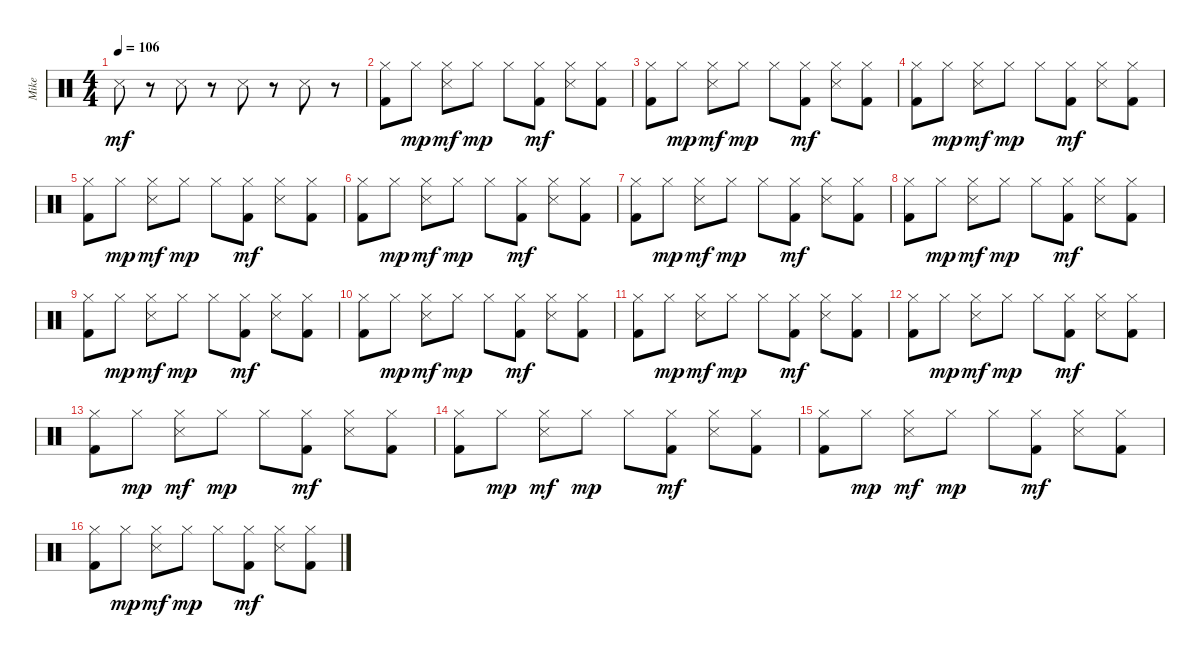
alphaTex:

\track ("Mike" "Mike") {instrument percussion}
\staff {score}
\articulation defaults
\ts (4 4)
\tempo 106
\clef neutral
\ks c "Snare (side stick) 3".8{dy mf volume 15}
r.8 "Snare (side stick) 3".8 r.8 "Snare (side stick) 3".8 r.8 "Snare (side stick) 3".8 r.8 |
("Hi-Hat (closed)" "Kick (hit) 2").8 "Hi-Hat (closed)".8{dy mp} ("Hi-Hat (closed)" "Snare (side stick) 3").8{dy mf} "Hi-Hat (closed)".8{dy mp} "Hi-Hat (closed)".8 ("Hi-Hat (closed)" "Kick (hit) 2").8{dy mf} ("Hi-Hat (closed)" "Snare (side stick) 3").8 ("Hi-Hat (closed)" "Kick (hit) 2").8 |
("Hi-Hat (closed)" "Kick (hit) 2").8 "Hi-Hat (closed)".8{dy mp} ("Hi-Hat (closed)" "Snare (side stick) 3").8{dy mf} "Hi-Hat (closed)".8{dy mp} "Hi-Hat (closed)".8 ("Hi-Hat (closed)" "Kick (hit) 2").8{dy mf} ("Hi-Hat (closed)" "Snare (side stick) 3").8 ("Hi-Hat (closed)" "Kick (hit) 2").8 |
("Hi-Hat (closed)" "Kick (hit) 2").8 "Hi-Hat (closed)".8{dy mp} ("Hi-Hat (closed)" "Snare (side stick) 3").8{dy mf} "Hi-Hat (closed)".8{dy mp} "Hi-Hat (closed)".8 ("Hi-Hat (closed)" "Kick (hit) 2").8{dy mf} ("Hi-Hat (closed)" "Snare (side stick) 3").8 ("Hi-Hat (closed)" "Kick (hit) 2").8 |
("Hi-Hat (closed)" "Kick (hit) 2").8 "Hi-Hat (closed)".8{dy mp} ("Hi-Hat (closed)" "Snare (side stick) 3").8{dy mf} "Hi-Hat (closed)".8{dy mp} "Hi-Hat (closed)".8 ("Hi-Hat (closed)" "Kick (hit) 2").8{dy mf} ("Hi-Hat (closed)" "Snare (side stick) 3").8 ("Hi-Hat (closed)" "Kick (hit) 2").8 |
("Hi-Hat (closed)" "Kick (hit) 2").8 "Hi-Hat (closed)".8{dy mp} ("Hi-Hat (closed)" "Snare (side stick) 3").8{dy mf} "Hi-Hat (closed)".8{dy mp} "Hi-Hat (closed)".8 ("Hi-Hat (closed)" "Kick (hit) 2").8{dy mf} ("Hi-Hat (closed)" "Snare (side stick) 3").8 ("Hi-Hat (closed)" "Kick (hit) 2").8 |
("Hi-Hat (closed)" "Kick (hit) 2").8 "Hi-Hat (closed)".8{dy mp} ("Hi-Hat (closed)" "Snare (side stick) 3").8{dy mf} "Hi-Hat (closed)".8{dy mp} "Hi-Hat (closed)".8 ("Hi-Hat (closed)" "Kick (hit) 2").8{dy mf} ("Hi-Hat (closed)" "Snare (side stick) 3").8 ("Hi-Hat (closed)" "Kick (hit) 2").8 |
("Hi-Hat (closed)" "Kick (hit) 2").8 "Hi-Hat (closed)".8{dy mp} ("Hi-Hat (closed)" "Snare (side stick) 3").8{dy mf} "Hi-Hat (closed)".8{dy mp} "Hi-Hat (closed)".8 ("Hi-Hat (closed)" "Kick (hit) 2").8{dy mf} ("Hi-Hat (closed)" "Snare (side stick) 3").8 ("Hi-Hat (closed)" "Kick (hit) 2").8 |
("Hi-Hat (closed)" "Kick (hit) 2").8 "Hi-Hat (closed)".8{dy mp} ("Hi-Hat (closed)" "Snare (side stick) 3").8{dy mf} "Hi-Hat (closed)".8{dy mp} "Hi-Hat (closed)".8 ("Hi-Hat (closed)" "Kick (hit) 2").8{dy mf} ("Hi-Hat (closed)" "Snare (side stick) 3").8 ("Hi-Hat (closed)" "Kick (hit) 2").8 |
("Hi-Hat (closed)" "Kick (hit) 2").8 "Hi-Hat (closed)".8{dy mp} ("Hi-Hat (closed)" "Snare (side stick) 3").8{dy mf} "Hi-Hat (closed)".8{dy mp} "Hi-Hat (closed)".8 ("Hi-Hat (closed)" "Kick (hit) 2").8{dy mf} ("Hi-Hat (closed)" "Snare (side stick) 3").8 ("Hi-Hat (closed)" "Kick (hit) 2").8 |
("Hi-Hat (closed)" "Kick (hit) 2").8 "Hi-Hat (closed)".8{dy mp} ("Hi-Hat (closed)" "Snare (side stick) 3").8{dy mf} "Hi-Hat (closed)".8{dy mp} "Hi-Hat (closed)".8 ("Hi-Hat (closed)" "Kick (hit) 2").8{dy mf} ("Hi-Hat (closed)" "Snare (side stick) 3").8 ("Hi-Hat (closed)" "Kick (hit) 2").8 |
("Hi-Hat (closed)" "Kick (hit) 2").8 "Hi-Hat (closed)".8{dy mp} ("Hi-Hat (closed)" "Snare (side stick) 3").8{dy mf} "Hi-Hat (closed)".8{dy mp} "Hi-Hat (closed)".8 ("Hi-Hat (closed)" "Kick (hit) 2").8{dy mf} ("Hi-Hat (closed)" "Snare (side stick) 3").8 ("Hi-Hat (closed)" "Kick (hit) 2").8 |
("Hi-Hat (closed)" "Kick (hit) 2").8 "Hi-Hat (closed)".8{dy mp} ("Hi-Hat (closed)" "Snare (side stick) 3").8{dy mf} "Hi-Hat (closed)".8{dy mp} "Hi-Hat (closed)".8 ("Hi-Hat (closed)" "Kick (hit) 2").8{dy mf} ("Hi-Hat (closed)" "Snare (side stick) 3").8 ("Hi-Hat (closed)" "Kick (hit) 2").8 |
("Hi-Hat (closed)" "Kick (hit) 2").8 "Hi-Hat (closed)".8{dy mp} ("Hi-Hat (closed)" "Snare (side stick) 3").8{dy mf} "Hi-Hat (closed)".8{dy mp} "Hi-Hat (closed)".8 ("Hi-Hat (closed)" "Kick (hit) 2").8{dy mf} ("Hi-Hat (closed)" "Snare (side stick) 3").8 ("Hi-Hat (closed)" "Kick (hit) 2").8 |
("Hi-Hat (closed)" "Kick (hit) 2").8 "Hi-Hat (closed)".8{dy mp} ("Hi-Hat (closed)" "Snare (side stick) 3").8{dy mf} "Hi-Hat (closed)".8{dy mp} "Hi-Hat (closed)".8 ("Hi-Hat (closed)" "Kick (hit) 2").8{dy mf} ("Hi-Hat (closed)" "Snare (side stick) 3").8 ("Hi-Hat (closed)" "Kick (hit) 2").8 |
("Hi-Hat (closed)" "Kick (hit) 2").8 "Hi-Hat (closed)".8{dy mp} ("Hi-Hat (closed)" "Snare (side stick) 3").8{dy mf} "Hi-Hat (closed)".8{dy mp} "Hi-Hat (closed)".8 ("Hi-Hat (closed)" "Kick (hit) 2").8{dy mf} ("Hi-Hat (closed)" "Snare (side stick) 3").8 ("Hi-Hat (closed)" "Kick (hit) 2").8
